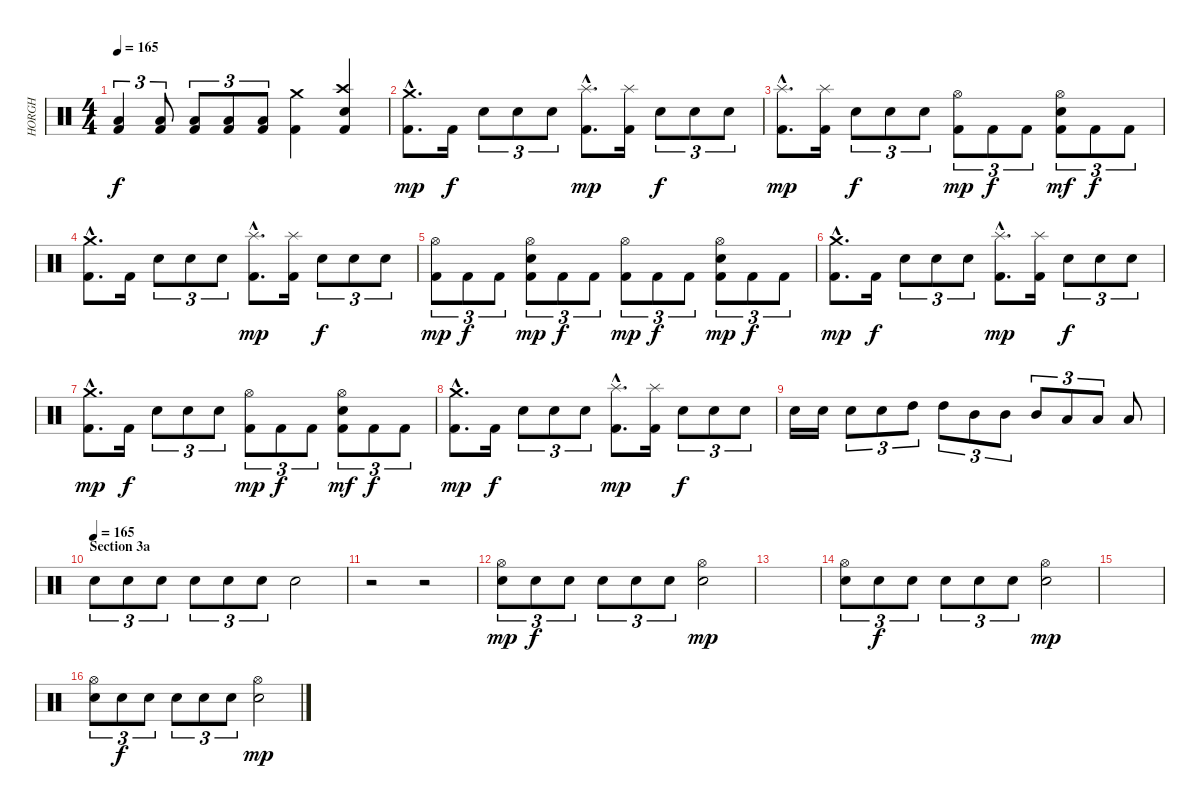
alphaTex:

\track ("HORGH" "HORGH") {instrument percussion}
\staff {score}
\articulation defaults
\ts (4 4)
\tempo 165
\clef neutral
\ks c
("Low Tom (hit)" "Kick (hit) 2").4{tu (3 2) dy f} ("Low Tom (hit)" "Kick (hit) 2").8{tu (3 2)} ("Low Tom (hit)" "Kick (hit) 2").8{tu (3 2)} ("Low Tom (hit)" "Kick (hit) 2").8{tu (3 2)} ("Low Tom (hit)" "Kick (hit) 2").8{tu (3 2)} ("Crash medium (hit)" "Kick (hit) 2").4 ("Crash high (hit)" "Electric Snare (hit)" "Kick (hit) 2").4 |
("Crash medium (hit)"{hac} "Kick (hit) 2"{hac}).8{d dy mp} "Kick (hit) 2".16{dy f} "Electric Snare (hit)".8{tu (3 2)} "Electric Snare (hit)".8{tu (3 2)} "Electric Snare (hit)".8{tu (3 2)} ("Splash (hit)"{hac} "Kick (hit) 2"{hac}).8{d dy mp} ("Splash (hit)" "Kick (hit) 2").16 "Electric Snare (hit)".8{tu (3 2) dy f} "Electric Snare (hit)".8{tu (3 2)} "Electric Snare (hit)".8{tu (3 2)} |
("Splash (hit)"{hac} "Kick (hit) 2"{hac}).8{d dy mp} ("Splash (hit)" "Kick (hit) 2").16 "Electric Snare (hit)".8{tu (3 2) dy f} "Electric Snare (hit)".8{tu (3 2)} "Electric Snare (hit)".8{tu (3 2)} ("Hi-Hat (open)" "Kick (hit) 2").8{tu (3 2) dy mp} "Kick (hit) 2".8{tu (3 2) dy f} "Kick (hit) 2".8{tu (3 2)} ("Hi-Hat (open)" "Electric Snare (hit)" "Kick (hit) 2").8{tu (3 2) dy mf} "Kick (hit) 2".8{tu (3 2) dy f} "Kick (hit) 2".8{tu (3 2)} |
("Crash medium (hit)"{hac} "Kick (hit) 2"{hac}).8{d} "Kick (hit) 2".16 "Electric Snare (hit)".8{tu (3 2)} "Electric Snare (hit)".8{tu (3 2)} "Electric Snare (hit)".8{tu (3 2)} ("Splash (hit)"{hac} "Kick (hit) 2"{hac}).8{d dy mp} ("Splash (hit)" "Kick (hit) 2").16 "Electric Snare (hit)".8{tu (3 2) dy f} "Electric Snare (hit)".8{tu (3 2)} "Electric Snare (hit)".8{tu (3 2)} |
("Hi-Hat (open)" "Kick (hit) 2").8{tu (3 2) dy mp} "Kick (hit) 2".8{tu (3 2) dy f} "Kick (hit) 2".8{tu (3 2)} ("Hi-Hat (open)" "Electric Snare (hit)" "Kick (hit) 2").8{tu (3 2) dy mp} "Kick (hit) 2".8{tu (3 2) dy f} "Kick (hit) 2".8{tu (3 2)} ("Hi-Hat (open)" "Kick (hit) 2").8{tu (3 2) dy mp} "Kick (hit) 2".8{tu (3 2) dy f} "Kick (hit) 2".8{tu (3 2)} ("Hi-Hat (open)" "Electric Snare (hit)" "Kick (hit) 2").8{tu (3 2) dy mp} "Kick (hit) 2".8{tu (3 2) dy f} "Kick (hit) 2".8{tu (3 2)} |
("Crash medium (hit)"{hac} "Kick (hit) 2"{hac}).8{d dy mp} "Kick (hit) 2".16{dy f} "Electric Snare (hit)".8{tu (3 2)} "Electric Snare (hit)".8{tu (3 2)} "Electric Snare (hit)".8{tu (3 2)} ("Splash (hit)"{hac} "Kick (hit) 2"{hac}).8{d dy mp} ("Splash (hit)" "Kick (hit) 2").16 "Electric Snare (hit)".8{tu (3 2) dy f} "Electric Snare (hit)".8{tu (3 2)} "Electric Snare (hit)".8{tu (3 2)} |
("Crash medium (hit)"{hac} "Kick (hit) 2"{hac}).8{d dy mp} "Kick (hit) 2".16{dy f} "Electric Snare (hit)".8{tu (3 2)} "Electric Snare (hit)".8{tu (3 2)} "Electric Snare (hit)".8{tu (3 2)} ("Hi-Hat (open)" "Kick (hit) 2").8{tu (3 2) dy mp} "Kick (hit) 2".8{tu (3 2) dy f} "Kick (hit) 2".8{tu (3 2)} ("Hi-Hat (open)" "Electric Snare (hit)" "Kick (hit) 2").8{tu (3 2) dy mf} "Kick (hit) 2".8{tu (3 2) dy f} "Kick (hit) 2".8{tu (3 2)} |
("Crash medium (hit)"{hac} "Kick (hit) 2"{hac}).8{d dy mp} "Kick (hit) 2".16{dy f} "Electric Snare (hit)".8{tu (3 2)} "Electric Snare (hit)".8{tu (3 2)} "Electric Snare (hit)".8{tu (3 2)} ("Splash (hit)"{hac} "Kick (hit) 2"{hac}).8{d dy mp} ("Splash (hit)" "Kick (hit) 2").16 "Electric Snare (hit)".8{tu (3 2) dy f} "Electric Snare (hit)".8{tu (3 2)} "Electric Snare (hit)".8{tu (3 2)} |
"Electric Snare (hit)".16 "Electric Snare (hit)".16 "Electric Snare (hit)".8{tu (3 2)} "Electric Snare (hit)".8{tu (3 2)} "High Tom (hit)".8{tu (3 2)} "High Tom (hit)".8{tu (3 2)} "Mid Tom (hit)".8{tu (3 2)} "Mid Tom (hit)".8{tu (3 2)} "Mid Tom (hit)".8{tu (3 2)} "Low Tom (hit)".8{tu (3 2)} "Low Tom (hit)".8{tu (3 2)} "Low Tom (hit)".8 |
\section ("" "Section 3a")
\tempo (165)
"Electric Snare (hit)".8{tu (3 2)} "Electric Snare (hit)".8{tu (3 2)} "Electric Snare (hit)".8{tu (3 2)} "Electric Snare (hit)".8{tu (3 2)} "Electric Snare (hit)".8{tu (3 2)} "Electric Snare (hit)".8{tu (3 2)} "Electric Snare (hit)".2 |
r.2 r.2 |
("Hi-Hat (open)" "Electric Snare (hit)").8{tu (3 2) dy mp} "Electric Snare (hit)".8{tu (3 2) dy f} "Electric Snare (hit)".8{tu (3 2)} "Electric Snare (hit)".8{tu (3 2)} "Electric Snare (hit)".8{tu (3 2)} "Electric Snare (hit)".8{tu (3 2)} ("Hi-Hat (open)" "Electric Snare (hit)").2{dy mp} |
|
("Hi-Hat (open)" "Electric Snare (hit)").8{tu (3 2)} "Electric Snare (hit)".8{tu (3 2) dy f} "Electric Snare (hit)".8{tu (3 2)} "Electric Snare (hit)".8{tu (3 2)} "Electric Snare (hit)".8{tu (3 2)} "Electric Snare (hit)".8{tu (3 2)} ("Hi-Hat (open)" "Electric Snare (hit)").2{dy mp} |
|
("Hi-Hat (open)" "Electric Snare (hit)").8{tu (3 2)} "Electric Snare (hit)".8{tu (3 2) dy f} "Electric Snare (hit)".8{tu (3 2)} "Electric Snare (hit)".8{tu (3 2)} "Electric Snare (hit)".8{tu (3 2)} "Electric Snare (hit)".8{tu (3 2)} ("Hi-Hat (open)" "Electric Snare (hit)").2{dy mp}
